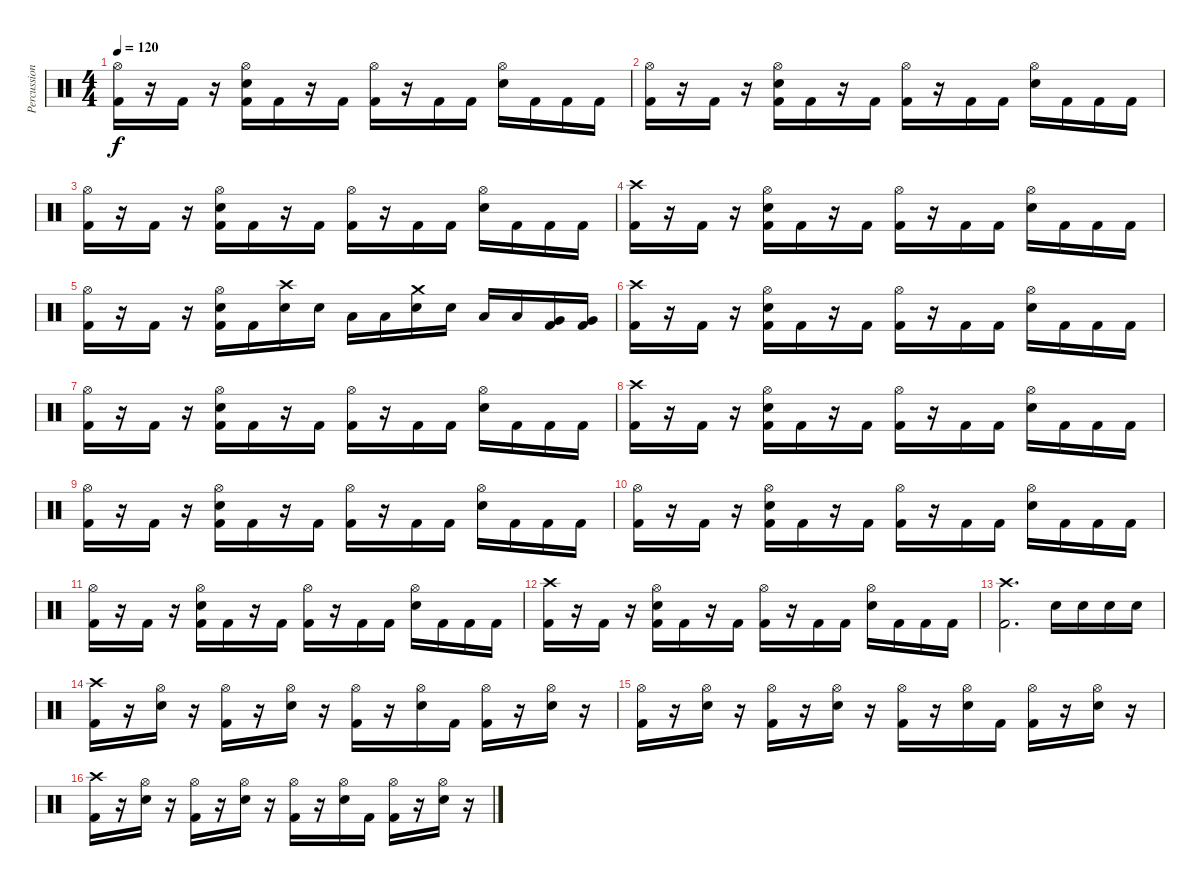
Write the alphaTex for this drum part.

\track ("Percussion" "Percussion") {instrument percussion}
\staff {score}
\articulation defaults
\ts (4 4)
\tempo 120
\clef neutral
\ks c
("Hi-Hat (open)" "Kick (hit) 2").16{dy f} r.16 "Kick (hit) 2".16 r.16 ("Hi-Hat (open)" "Electric Snare (hit)" "Kick (hit) 2").16 "Kick (hit) 2".16 r.16 "Kick (hit) 2".16 ("Hi-Hat (open)" "Kick (hit) 2").16 r.16 "Kick (hit) 2".16 "Kick (hit) 2".16 ("Hi-Hat (open)" "Electric Snare (hit)").16 "Kick (hit) 2".16 "Kick (hit) 2".16 "Kick (hit) 2".16 |
("Hi-Hat (open)" "Kick (hit) 2").16 r.16 "Kick (hit) 2".16 r.16 ("Hi-Hat (open)" "Electric Snare (hit)" "Kick (hit) 2").16 "Kick (hit) 2".16 r.16 "Kick (hit) 2".16 ("Hi-Hat (open)" "Kick (hit) 2").16 r.16 "Kick (hit) 2".16 "Kick (hit) 2".16 ("Hi-Hat (open)" "Electric Snare (hit)").16 "Kick (hit) 2".16 "Kick (hit) 2".16 "Kick (hit) 2".16 |
("Hi-Hat (open)" "Kick (hit) 2").16 r.16 "Kick (hit) 2".16 r.16 ("Hi-Hat (open)" "Electric Snare (hit)" "Kick (hit) 2").16 "Kick (hit) 2".16 r.16 "Kick (hit) 2".16 ("Hi-Hat (open)" "Kick (hit) 2").16 r.16 "Kick (hit) 2".16 "Kick (hit) 2".16 ("Hi-Hat (open)" "Electric Snare (hit)").16 "Kick (hit) 2".16 "Kick (hit) 2".16 "Kick (hit) 2".16 |
("Crash high (hit)" "Kick (hit) 2").16 r.16 "Kick (hit) 2".16 r.16 ("Hi-Hat (open)" "Electric Snare (hit)" "Kick (hit) 2").16 "Kick (hit) 2".16 r.16 "Kick (hit) 2".16 ("Hi-Hat (open)" "Kick (hit) 2").16 r.16 "Kick (hit) 2".16 "Kick (hit) 2".16 ("Hi-Hat (open)" "Electric Snare (hit)").16 "Kick (hit) 2".16 "Kick (hit) 2".16 "Kick (hit) 2".16 |
("Hi-Hat (open)" "Kick (hit) 2").16 r.16 "Kick (hit) 2".16 r.16 ("Hi-Hat (open)" "Electric Snare (hit)" "Kick (hit) 2").16 "Kick (hit) 2".16 ("Crash high (hit)" "Electric Snare (hit)").16 "Electric Snare (hit)".16 "Low Tom (hit)".16 "Low Tom (hit)".16 ("Crash medium (hit)" "Electric Snare (hit)").16 "Electric Snare (hit)".16 "Low Tom (hit)".16 "Low Tom (hit)".16 ("Very Low Tom (hit)" "Kick (hit) 2").16 ("Very Low Tom (hit)" "Kick (hit) 2").16 |
("Crash high (hit)" "Kick (hit) 2").16 r.16 "Kick (hit) 2".16 r.16 ("Hi-Hat (open)" "Electric Snare (hit)" "Kick (hit) 2").16 "Kick (hit) 2".16 r.16 "Kick (hit) 2".16 ("Hi-Hat (open)" "Kick (hit) 2").16 r.16 "Kick (hit) 2".16 "Kick (hit) 2".16 ("Hi-Hat (open)" "Electric Snare (hit)").16 "Kick (hit) 2".16 "Kick (hit) 2".16 "Kick (hit) 2".16 |
("Hi-Hat (open)" "Kick (hit) 2").16 r.16 "Kick (hit) 2".16 r.16 ("Hi-Hat (open)" "Electric Snare (hit)" "Kick (hit) 2").16 "Kick (hit) 2".16 r.16 "Kick (hit) 2".16 ("Hi-Hat (open)" "Kick (hit) 2").16 r.16 "Kick (hit) 2".16 "Kick (hit) 2".16 ("Hi-Hat (open)" "Electric Snare (hit)").16 "Kick (hit) 2".16 "Kick (hit) 2".16 "Kick (hit) 2".16 |
("Crash high (hit)" "Kick (hit) 2").16 r.16 "Kick (hit) 2".16 r.16 ("Hi-Hat (open)" "Electric Snare (hit)" "Kick (hit) 2").16 "Kick (hit) 2".16 r.16 "Kick (hit) 2".16 ("Hi-Hat (open)" "Kick (hit) 2").16 r.16 "Kick (hit) 2".16 "Kick (hit) 2".16 ("Hi-Hat (open)" "Electric Snare (hit)").16 "Kick (hit) 2".16 "Kick (hit) 2".16 "Kick (hit) 2".16 |
("Hi-Hat (open)" "Kick (hit) 2").16 r.16 "Kick (hit) 2".16 r.16 ("Hi-Hat (open)" "Electric Snare (hit)" "Kick (hit) 2").16 "Kick (hit) 2".16 r.16 "Kick (hit) 2".16 ("Hi-Hat (open)" "Kick (hit) 2").16 r.16 "Kick (hit) 2".16 "Kick (hit) 2".16 ("Hi-Hat (open)" "Electric Snare (hit)").16 "Kick (hit) 2".16 "Kick (hit) 2".16 "Kick (hit) 2".16 |
("Hi-Hat (open)" "Kick (hit) 2").16 r.16 "Kick (hit) 2".16 r.16 ("Hi-Hat (open)" "Electric Snare (hit)" "Kick (hit) 2").16 "Kick (hit) 2".16 r.16 "Kick (hit) 2".16 ("Hi-Hat (open)" "Kick (hit) 2").16 r.16 "Kick (hit) 2".16 "Kick (hit) 2".16 ("Hi-Hat (open)" "Electric Snare (hit)").16 "Kick (hit) 2".16 "Kick (hit) 2".16 "Kick (hit) 2".16 |
("Hi-Hat (open)" "Kick (hit) 2").16 r.16 "Kick (hit) 2".16 r.16 ("Hi-Hat (open)" "Electric Snare (hit)" "Kick (hit) 2").16 "Kick (hit) 2".16 r.16 "Kick (hit) 2".16 ("Hi-Hat (open)" "Kick (hit) 2").16 r.16 "Kick (hit) 2".16 "Kick (hit) 2".16 ("Hi-Hat (open)" "Electric Snare (hit)").16 "Kick (hit) 2".16 "Kick (hit) 2".16 "Kick (hit) 2".16 |
("Crash high (hit)" "Kick (hit) 2").16 r.16 "Kick (hit) 2".16 r.16 ("Hi-Hat (open)" "Electric Snare (hit)" "Kick (hit) 2").16 "Kick (hit) 2".16 r.16 "Kick (hit) 2".16 ("Hi-Hat (open)" "Kick (hit) 2").16 r.16 "Kick (hit) 2".16 "Kick (hit) 2".16 ("Hi-Hat (open)" "Electric Snare (hit)").16 "Kick (hit) 2".16 "Kick (hit) 2".16 "Kick (hit) 2".16 |
("Crash high (hit)" "Kick (hit) 2").2{d} "Electric Snare (hit)".16 "Electric Snare (hit)".16 "Electric Snare (hit)".16 "Electric Snare (hit)".16 |
("Crash high (hit)" "Kick (hit) 2").16 r.16 ("Hi-Hat (open)" "Electric Snare (hit)").16 r.16 ("Hi-Hat (open)" "Kick (hit) 2").16 r.16 ("Hi-Hat (open)" "Electric Snare (hit)").16 r.16 ("Hi-Hat (open)" "Kick (hit) 2").16 r.16 ("Hi-Hat (open)" "Electric Snare (hit)").16 "Kick (hit) 2".16 ("Hi-Hat (open)" "Kick (hit) 2").16 r.16 ("Hi-Hat (open)" "Electric Snare (hit)").16 r.16 |
("Hi-Hat (open)" "Kick (hit) 2").16 r.16 ("Hi-Hat (open)" "Electric Snare (hit)").16 r.16 ("Hi-Hat (open)" "Kick (hit) 2").16 r.16 ("Hi-Hat (open)" "Electric Snare (hit)").16 r.16 ("Hi-Hat (open)" "Kick (hit) 2").16 r.16 ("Hi-Hat (open)" "Electric Snare (hit)").16 "Kick (hit) 2".16 ("Hi-Hat (open)" "Kick (hit) 2").16 r.16 ("Hi-Hat (open)" "Electric Snare (hit)").16 r.16 |
("Crash high (hit)" "Kick (hit) 2").16 r.16 ("Hi-Hat (open)" "Electric Snare (hit)").16 r.16 ("Hi-Hat (open)" "Kick (hit) 2").16 r.16 ("Hi-Hat (open)" "Electric Snare (hit)").16 r.16 ("Hi-Hat (open)" "Kick (hit) 2").16 r.16 ("Hi-Hat (open)" "Electric Snare (hit)").16 "Kick (hit) 2".16 ("Hi-Hat (open)" "Kick (hit) 2").16 r.16 ("Hi-Hat (open)" "Electric Snare (hit)").16 r.16
